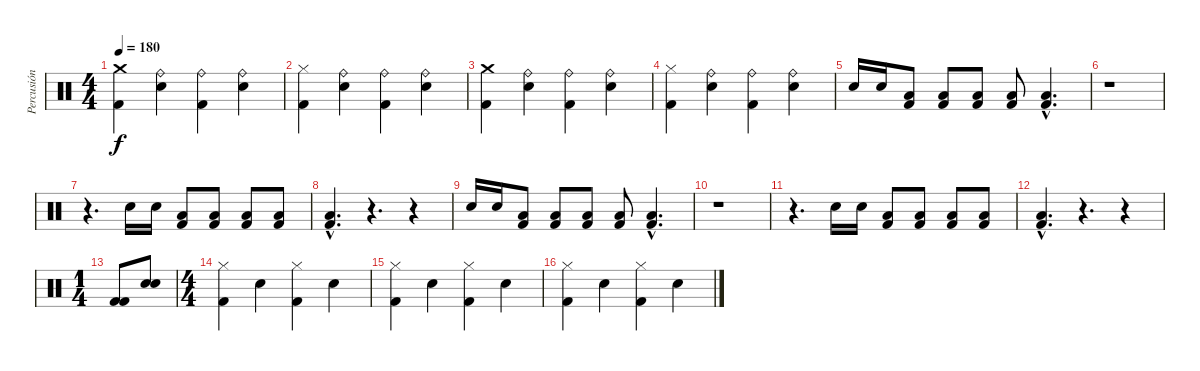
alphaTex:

\track ("Percusión" "Percusión") {instrument percussion}
\staff {score}
\articulation defaults
\ts (4 4)
\tempo 180
\clef neutral
\ks c
("Crash medium (hit)" "Kick (hit) 2").4{dy f} ("Ride (bell)" "Electric Snare (hit)").4 ("Ride (bell)" "Kick (hit) 2").4 ("Ride (bell)" "Electric Snare (hit)").4 |
("Hi-Hat (closed)" "Kick (hit) 2").4 ("Ride (bell)" "Electric Snare (hit)").4 ("Ride (bell)" "Kick (hit) 2").4 ("Ride (bell)" "Electric Snare (hit)").4 |
("Crash medium (hit)" "Kick (hit) 2").4 ("Ride (bell)" "Electric Snare (hit)").4 ("Ride (bell)" "Kick (hit) 2").4 ("Ride (bell)" "Electric Snare (hit)").4 |
("Hi-Hat (closed)" "Kick (hit) 2").4 ("Ride (bell)" "Electric Snare (hit)").4 ("Ride (bell)" "Kick (hit) 2").4 ("Ride (bell)" "Electric Snare (hit)").4 |
"Electric Snare (hit)".16 "Electric Snare (hit)".16 ("Low Floor Tom (hit)" "Kick (hit) 2").8 ("Low Floor Tom (hit)" "Kick (hit) 2").8 ("Low Floor Tom (hit)" "Kick (hit) 2").8 ("Low Floor Tom (hit)" "Kick (hit) 2").8 ("Low Floor Tom (hit)"{hac} "Kick (hit) 2"{hac}).4{d} |
r.1 |
r.4{d} "Electric Snare (hit)".16 "Electric Snare (hit)".16 ("Low Floor Tom (hit)" "Kick (hit) 2").8 ("Low Floor Tom (hit)" "Kick (hit) 2").8 ("Low Floor Tom (hit)" "Kick (hit) 2").8 ("Low Floor Tom (hit)" "Kick (hit) 2").8 |
("Low Floor Tom (hit)"{hac} "Kick (hit) 2"{hac}).4{d} r.4{d} r.4 |
"Electric Snare (hit)".16 "Electric Snare (hit)".16 ("Low Floor Tom (hit)" "Kick (hit) 2").8 ("Low Floor Tom (hit)" "Kick (hit) 2").8 ("Low Floor Tom (hit)" "Kick (hit) 2").8 ("Low Floor Tom (hit)" "Kick (hit) 2").8 ("Low Floor Tom (hit)"{hac} "Kick (hit) 2"{hac}).4{d} |
r.1 |
r.4{d} "Electric Snare (hit)".16 "Electric Snare (hit)".16 ("Low Floor Tom (hit)" "Kick (hit) 2").8 ("Low Floor Tom (hit)" "Kick (hit) 2").8 ("Low Floor Tom (hit)" "Kick (hit) 2").8 ("Low Floor Tom (hit)" "Kick (hit) 2").8 |
("Low Floor Tom (hit)"{hac} "Kick (hit) 2"{hac}).4{d} r.4{d} r.4 |
\ts (1 4)
("Kick (hit) 2" "Kick (hit) 2").8 ("Snare (hit) 2" "Electric Snare (hit)").8 |
\ts (4 4)
("Hi-Hat (closed)" "Kick (hit) 2").4 "Electric Snare (hit)".4 ("Hi-Hat (closed)" "Kick (hit) 2").4 "Electric Snare (hit)".4 |
("Hi-Hat (closed)" "Kick (hit) 2").4 "Electric Snare (hit)".4 ("Hi-Hat (closed)" "Kick (hit) 2").4 "Electric Snare (hit)".4 |
("Hi-Hat (closed)" "Kick (hit) 2").4 "Electric Snare (hit)".4 ("Hi-Hat (closed)" "Kick (hit) 2").4 "Electric Snare (hit)".4
